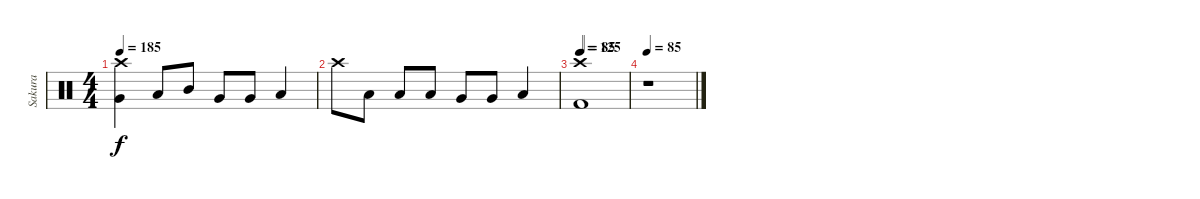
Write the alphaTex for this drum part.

\track ("Sakura" "Sakura") {instrument percussion}
\staff {score}
\articulation defaults
\ts (4 4)
\tempo 185
\clef neutral
\ks c
("Crash high (hit)" "Very Low Tom (hit)").4{dy f} "Low Tom (hit)".8 "Mid Tom (hit)".8 "Very Low Tom (hit)".8 "Very Low Tom (hit)".8 "Low Tom (hit)".4 |
"Crash high (hit)".8 "Low Tom (hit)".8 "Low Tom (hit)".8 "Low Tom (hit)".8 "Very Low Tom (hit)".8 "Very Low Tom (hit)".8 "Low Floor Tom (hit)".4 |
\tempo 125
\tempo (85 0.03125)
("Crash high (hit)" "Kick (hit) 2").1 |
\tempo 85
r.1
